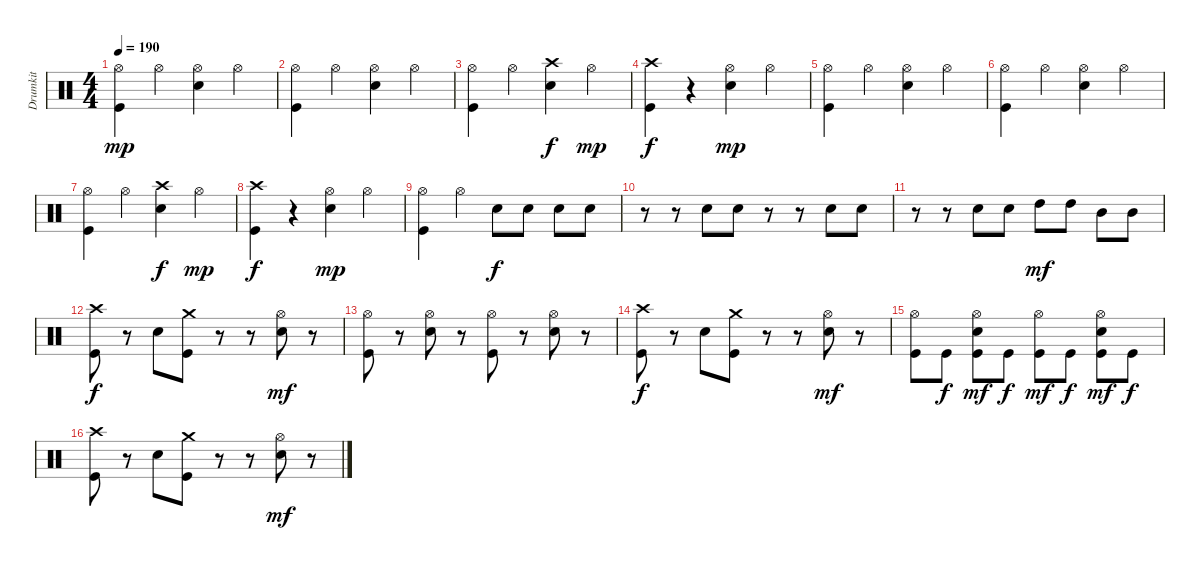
\track ("Drumkit" "Drumkit") {instrument percussion}
\staff {score}
\articulation defaults
\ts (4 4)
\tempo 190
\clef neutral
\ks c
("Hi-Hat (open)" "Kick (hit)").4{dy mp} "Hi-Hat (open)".4 ("Hi-Hat (open)" "Snare (hit) 2").4 "Hi-Hat (open)".4 |
("Hi-Hat (open)" "Kick (hit)").4 "Hi-Hat (open)".4 ("Hi-Hat (open)" "Snare (hit) 2").4 "Hi-Hat (open)".4 |
("Hi-Hat (open)" "Kick (hit)").4 "Hi-Hat (open)".4 ("Crash high (hit)" "Snare (hit) 2").4{dy f} "Hi-Hat (open)".4{dy mp} |
("Crash high (hit)" "Kick (hit)").4{dy f} r.4 ("Hi-Hat (open)" "Snare (hit) 2").4{dy mp} "Hi-Hat (open)".4 |
("Hi-Hat (open)" "Kick (hit)").4 "Hi-Hat (open)".4 ("Hi-Hat (open)" "Snare (hit) 2").4 "Hi-Hat (open)".4 |
("Hi-Hat (open)" "Kick (hit)").4 "Hi-Hat (open)".4 ("Hi-Hat (open)" "Snare (hit) 2").4 "Hi-Hat (open)".4 |
("Hi-Hat (open)" "Kick (hit)").4 "Hi-Hat (open)".4 ("Crash high (hit)" "Snare (hit) 2").4{dy f} "Hi-Hat (open)".4{dy mp} |
("Crash high (hit)" "Kick (hit)").4{dy f} r.4 ("Hi-Hat (open)" "Snare (hit) 2").4{dy mp} "Hi-Hat (open)".4 |
("Hi-Hat (open)" "Kick (hit)").4 "Hi-Hat (open)".4 "Snare (hit) 2".8{dy f} "Snare (hit) 2".8 "Snare (hit) 2".8 "Snare (hit) 2".8 |
r.8 r.8 "Snare (hit) 2".8 "Snare (hit) 2".8 r.8 r.8 "Snare (hit) 2".8 "Snare (hit) 2".8 |
r.8 r.8 "Snare (hit) 2".8 "Snare (hit) 2".8 "High Tom (hit)".8{dy mf} "High Tom (hit)".8 "Mid Tom (hit)".8 "Mid Tom (hit)".8 |
("Crash high (hit)" "Kick (hit)").8{dy f} r.8 "Snare (hit) 2".8 ("Crash medium (hit)" "Kick (hit)").8 r.8 r.8 ("Hi-Hat (open)" "Snare (hit) 2").8{dy mf} r.8 |
("Hi-Hat (open)" "Kick (hit)").8 r.8 ("Hi-Hat (open)" "Snare (hit) 2").8 r.8 ("Hi-Hat (open)" "Kick (hit)").8 r.8 ("Hi-Hat (open)" "Snare (hit) 2").8 r.8 |
("Crash high (hit)" "Kick (hit)").8{dy f} r.8 "Snare (hit) 2".8 ("Crash medium (hit)" "Kick (hit)").8 r.8 r.8 ("Hi-Hat (open)" "Snare (hit) 2").8{dy mf} r.8 |
("Hi-Hat (open)" "Kick (hit)").8 "Kick (hit)".8{dy f} ("Hi-Hat (open)" "Snare (hit) 2" "Kick (hit)").8{dy mf} "Kick (hit)".8{dy f} ("Hi-Hat (open)" "Kick (hit)").8{dy mf} "Kick (hit)".8{dy f} ("Hi-Hat (open)" "Snare (hit) 2" "Kick (hit)").8{dy mf} "Kick (hit)".8{dy f} |
("Crash high (hit)" "Kick (hit)").8 r.8 "Snare (hit) 2".8 ("Crash medium (hit)" "Kick (hit)").8 r.8 r.8 ("Hi-Hat (open)" "Snare (hit) 2").8{dy mf} r.8
